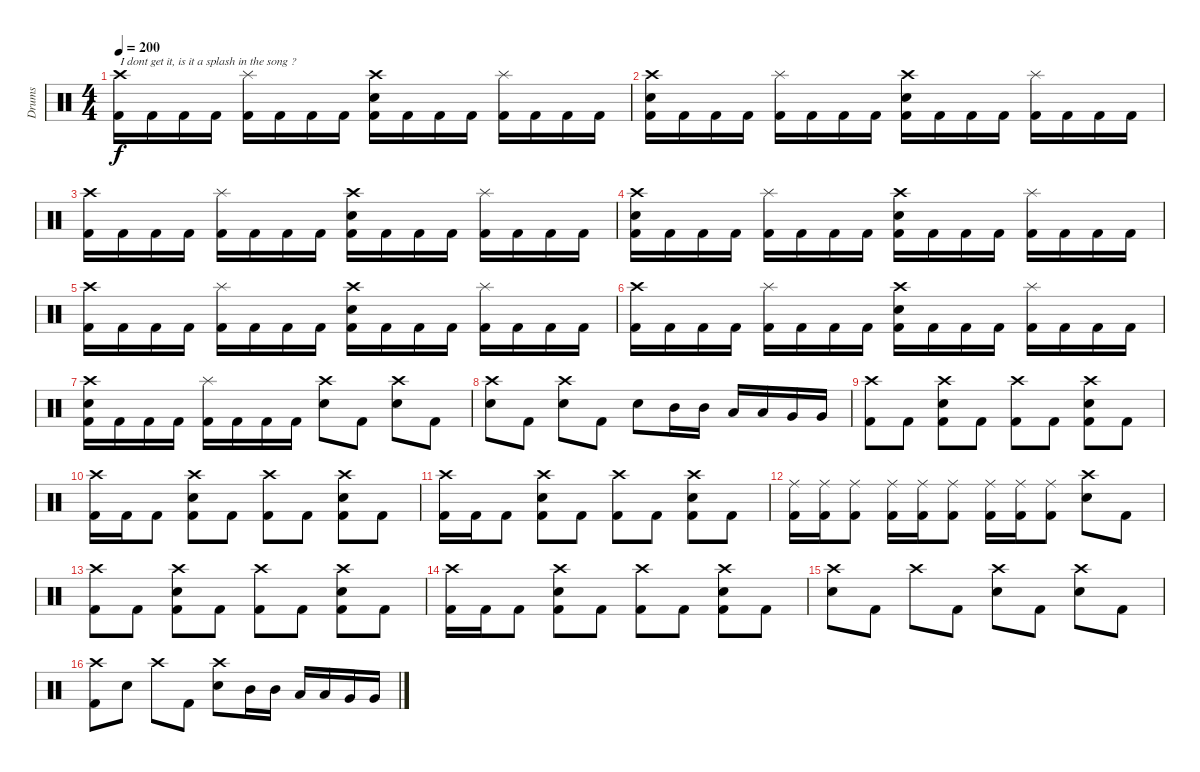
\track ("Drums" "Drums") {instrument percussion}
\staff {score}
\articulation defaults
\ts (4 4)
\tempo 200
\clef neutral
\ks c
("Crash high (hit)" "Kick (hit) 2").16{txt "I dont get it, is it a splash in the song ?" dy f} "Kick (hit) 2".16 "Kick (hit) 2".16 "Kick (hit) 2".16 ("Splash (hit)" "Kick (hit) 2").16 "Kick (hit) 2".16 "Kick (hit) 2".16 "Kick (hit) 2".16 ("Crash high (hit)" "Snare (hit) 2" "Kick (hit) 2").16 "Kick (hit) 2".16 "Kick (hit) 2".16 "Kick (hit) 2".16 ("Splash (hit)" "Kick (hit) 2").16 "Kick (hit) 2".16 "Kick (hit) 2".16 "Kick (hit) 2".16 |
("Crash high (hit)" "Snare (hit) 2" "Kick (hit) 2").16 "Kick (hit) 2".16 "Kick (hit) 2".16 "Kick (hit) 2".16 ("Splash (hit)" "Kick (hit) 2").16 "Kick (hit) 2".16 "Kick (hit) 2".16 "Kick (hit) 2".16 ("Crash high (hit)" "Snare (hit) 2" "Kick (hit) 2").16 "Kick (hit) 2".16 "Kick (hit) 2".16 "Kick (hit) 2".16 ("Splash (hit)" "Kick (hit) 2").16 "Kick (hit) 2".16 "Kick (hit) 2".16 "Kick (hit) 2".16 |
("Crash high (hit)" "Kick (hit) 2").16 "Kick (hit) 2".16 "Kick (hit) 2".16 "Kick (hit) 2".16 ("Splash (hit)" "Kick (hit) 2").16 "Kick (hit) 2".16 "Kick (hit) 2".16 "Kick (hit) 2".16 ("Crash high (hit)" "Snare (hit) 2" "Kick (hit) 2").16 "Kick (hit) 2".16 "Kick (hit) 2".16 "Kick (hit) 2".16 ("Splash (hit)" "Kick (hit) 2").16 "Kick (hit) 2".16 "Kick (hit) 2".16 "Kick (hit) 2".16 |
("Crash high (hit)" "Snare (hit) 2" "Kick (hit) 2").16 "Kick (hit) 2".16 "Kick (hit) 2".16 "Kick (hit) 2".16 ("Splash (hit)" "Kick (hit) 2").16 "Kick (hit) 2".16 "Kick (hit) 2".16 "Kick (hit) 2".16 ("Crash high (hit)" "Snare (hit) 2" "Kick (hit) 2").16 "Kick (hit) 2".16 "Kick (hit) 2".16 "Kick (hit) 2".16 ("Splash (hit)" "Kick (hit) 2").16 "Kick (hit) 2".16 "Kick (hit) 2".16 "Kick (hit) 2".16 |
("Crash high (hit)" "Kick (hit) 2").16 "Kick (hit) 2".16 "Kick (hit) 2".16 "Kick (hit) 2".16 ("Splash (hit)" "Kick (hit) 2").16 "Kick (hit) 2".16 "Kick (hit) 2".16 "Kick (hit) 2".16 ("Crash high (hit)" "Snare (hit) 2" "Kick (hit) 2").16 "Kick (hit) 2".16 "Kick (hit) 2".16 "Kick (hit) 2".16 ("Splash (hit)" "Kick (hit) 2").16 "Kick (hit) 2".16 "Kick (hit) 2".16 "Kick (hit) 2".16 |
("Crash high (hit)" "Kick (hit) 2").16 "Kick (hit) 2".16 "Kick (hit) 2".16 "Kick (hit) 2".16 ("Splash (hit)" "Kick (hit) 2").16 "Kick (hit) 2".16 "Kick (hit) 2".16 "Kick (hit) 2".16 ("Crash high (hit)" "Snare (hit) 2" "Kick (hit) 2").16 "Kick (hit) 2".16 "Kick (hit) 2".16 "Kick (hit) 2".16 ("Splash (hit)" "Kick (hit) 2").16 "Kick (hit) 2".16 "Kick (hit) 2".16 "Kick (hit) 2".16 |
("Crash high (hit)" "Snare (hit) 2" "Kick (hit) 2").16 "Kick (hit) 2".16 "Kick (hit) 2".16 "Kick (hit) 2".16 ("Splash (hit)" "Kick (hit) 2").16 "Kick (hit) 2".16 "Kick (hit) 2".16 "Kick (hit) 2".16 ("Crash high (hit)" "Snare (hit) 2").8 "Kick (hit) 2".8 ("Crash high (hit)" "Snare (hit) 2").8 "Kick (hit) 2".8 |
("Crash high (hit)" "Snare (hit) 2").8 "Kick (hit) 2".8 ("Crash high (hit)" "Snare (hit) 2").8 "Kick (hit) 2".8 "Snare (hit) 2".8 "Mid Tom (hit)".16 "Mid Tom (hit)".16 "Low Tom (hit)".16 "Low Tom (hit)".16 "Very Low Tom (hit)".16 "Very Low Tom (hit)".16 |
("Crash high (hit)" "Kick (hit) 2").8 "Kick (hit) 2".8 ("Crash high (hit)" "Snare (hit) 2" "Kick (hit) 2").8 "Kick (hit) 2".8 ("Crash high (hit)" "Kick (hit) 2").8 "Kick (hit) 2".8 ("Crash high (hit)" "Snare (hit) 2" "Kick (hit) 2").8 "Kick (hit) 2".8 |
("Crash high (hit)" "Kick (hit) 2").16 "Kick (hit) 2".16 "Kick (hit) 2".8 ("Crash high (hit)" "Snare (hit) 2" "Kick (hit) 2").8 "Kick (hit) 2".8 ("Crash high (hit)" "Kick (hit) 2").8 "Kick (hit) 2".8 ("Crash high (hit)" "Snare (hit) 2" "Kick (hit) 2").8 "Kick (hit) 2".8 |
("Crash high (hit)" "Kick (hit) 2").16 "Kick (hit) 2".16 "Kick (hit) 2".8 ("Crash high (hit)" "Snare (hit) 2" "Kick (hit) 2").8 "Kick (hit) 2".8 ("Crash high (hit)" "Kick (hit) 2").8 "Kick (hit) 2".8 ("Crash high (hit)" "Snare (hit) 2" "Kick (hit) 2").8 "Kick (hit) 2".8 |
("Ride (middle)" "Kick (hit) 2").16 ("Ride (middle)" "Kick (hit) 2").16 ("Ride (middle)" "Kick (hit) 2").8 ("Ride (middle)" "Kick (hit) 2").16 ("Ride (middle)" "Kick (hit) 2").16 ("Ride (middle)" "Kick (hit) 2").8 ("Ride (middle)" "Kick (hit) 2").16 ("Ride (middle)" "Kick (hit) 2").16 ("Ride (middle)" "Kick (hit) 2").8 ("Crash high (hit)" "Snare (hit) 2").8 "Kick (hit) 2".8 |
("Crash high (hit)" "Kick (hit) 2").8 "Kick (hit) 2".8 ("Crash high (hit)" "Snare (hit) 2" "Kick (hit) 2").8 "Kick (hit) 2".8 ("Crash high (hit)" "Kick (hit) 2").8 "Kick (hit) 2".8 ("Crash high (hit)" "Snare (hit) 2" "Kick (hit) 2").8 "Kick (hit) 2".8 |
("Crash high (hit)" "Kick (hit) 2").16 "Kick (hit) 2".16 "Kick (hit) 2".8 ("Crash high (hit)" "Snare (hit) 2" "Kick (hit) 2").8 "Kick (hit) 2".8 ("Crash high (hit)" "Kick (hit) 2").8 "Kick (hit) 2".8 ("Crash high (hit)" "Snare (hit) 2" "Kick (hit) 2").8 "Kick (hit) 2".8 |
("Crash high (hit)" "Snare (hit) 2").8 "Kick (hit) 2".8 "Crash high (hit)".8 "Kick (hit) 2".8 ("Crash high (hit)" "Snare (hit) 2").8 "Kick (hit) 2".8 ("Crash high (hit)" "Snare (hit) 2").8 "Kick (hit) 2".8 |
("Crash high (hit)" "Kick (hit) 2").8 "Snare (hit) 2".8 "Crash high (hit)".8 "Kick (hit) 2".8 ("Crash high (hit)" "Snare (hit) 2").8 "Mid Tom (hit)".16 "Mid Tom (hit)".16 "Low Tom (hit)".16 "Low Tom (hit)".16 "Very Low Tom (hit)".16 "Very Low Tom (hit)".16
